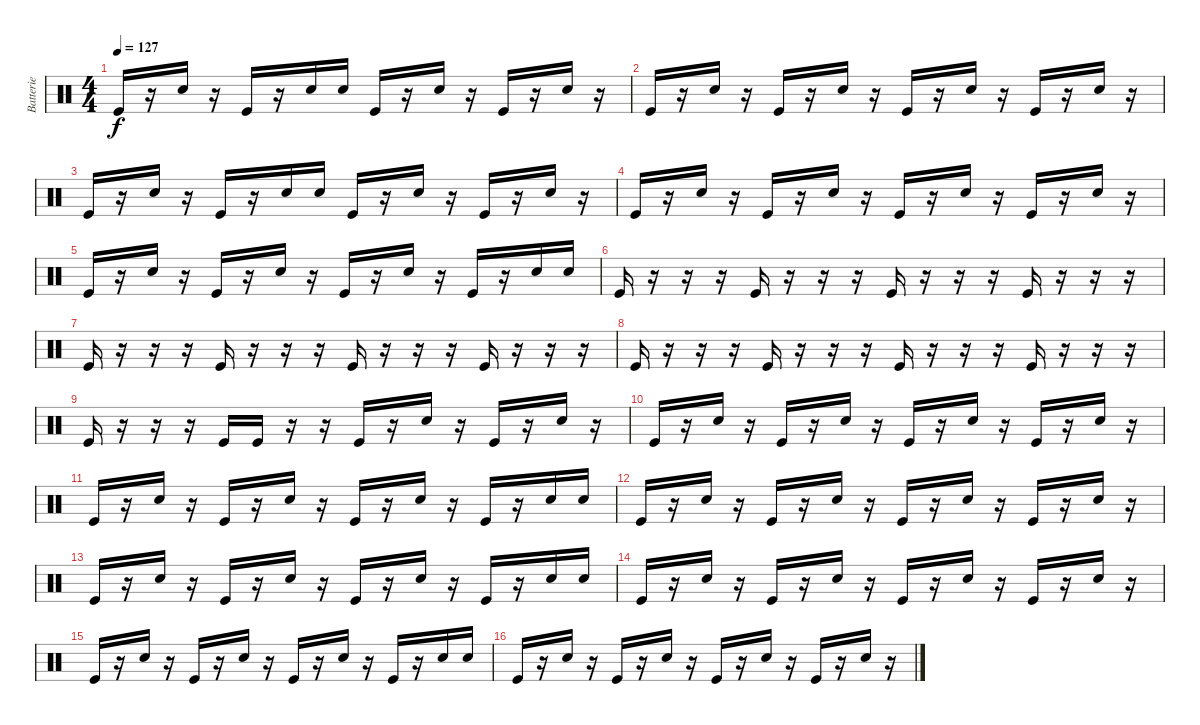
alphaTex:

\track ("Batterie" "Batterie") {instrument percussion}
\staff {score}
\articulation defaults
\ts (4 4)
\tempo 127
\clef neutral
\ks c "Kick (hit)".16{dy f}
r.16 "Snare (hit) 2".16 r.16 "Kick (hit)".16 r.16 "Snare (hit) 2".16 "Snare (hit) 2".16 "Kick (hit)".16 r.16 "Snare (hit) 2".16 r.16 "Kick (hit)".16 r.16 "Snare (hit) 2".16 r.16 |
"Kick (hit)".16 r.16 "Snare (hit) 2".16 r.16 "Kick (hit)".16 r.16 "Snare (hit) 2".16 r.16 "Kick (hit)".16 r.16 "Snare (hit) 2".16 r.16 "Kick (hit)".16 r.16 "Snare (hit) 2".16 r.16 |
"Kick (hit)".16 r.16 "Snare (hit) 2".16 r.16 "Kick (hit)".16 r.16 "Snare (hit) 2".16 "Snare (hit) 2".16 "Kick (hit)".16 r.16 "Snare (hit) 2".16 r.16 "Kick (hit)".16 r.16 "Snare (hit) 2".16 r.16 |
"Kick (hit)".16 r.16 "Snare (hit) 2".16 r.16 "Kick (hit)".16 r.16 "Snare (hit) 2".16 r.16 "Kick (hit)".16 r.16 "Snare (hit) 2".16 r.16 "Kick (hit)".16 r.16 "Snare (hit) 2".16 r.16 |
"Kick (hit)".16 r.16 "Snare (hit) 2".16 r.16 "Kick (hit)".16 r.16 "Snare (hit) 2".16 r.16 "Kick (hit)".16 r.16 "Snare (hit) 2".16 r.16 "Kick (hit)".16 r.16 "Snare (hit) 2".16 "Snare (hit) 2".16 |
"Kick (hit)".16 r.16 r.16 r.16 "Kick (hit)".16 r.16 r.16 r.16 "Kick (hit)".16 r.16 r.16 r.16 "Kick (hit)".16 r.16 r.16 r.16 |
"Kick (hit)".16 r.16 r.16 r.16 "Kick (hit)".16 r.16 r.16 r.16 "Kick (hit)".16 r.16 r.16 r.16 "Kick (hit)".16 r.16 r.16 r.16 |
"Kick (hit)".16 r.16 r.16 r.16 "Kick (hit)".16 r.16 r.16 r.16 "Kick (hit)".16 r.16 r.16 r.16 "Kick (hit)".16 r.16 r.16 r.16 |
"Kick (hit)".16 r.16 r.16 r.16 "Kick (hit)".16 "Kick (hit)".16 r.16 r.16 "Kick (hit)".16 r.16 "Snare (hit) 2".16 r.16 "Kick (hit)".16 r.16 "Snare (hit) 2".16 r.16 |
"Kick (hit)".16 r.16 "Snare (hit) 2".16 r.16 "Kick (hit)".16 r.16 "Snare (hit) 2".16 r.16 "Kick (hit)".16 r.16 "Snare (hit) 2".16 r.16 "Kick (hit)".16 r.16 "Snare (hit) 2".16 r.16 |
"Kick (hit)".16 r.16 "Snare (hit) 2".16 r.16 "Kick (hit)".16 r.16 "Snare (hit) 2".16 r.16 "Kick (hit)".16 r.16 "Snare (hit) 2".16 r.16 "Kick (hit)".16 r.16 "Snare (hit) 2".16 "Snare (hit) 2".16 |
"Kick (hit)".16 r.16 "Snare (hit) 2".16 r.16 "Kick (hit)".16 r.16 "Snare (hit) 2".16 r.16 "Kick (hit)".16 r.16 "Snare (hit) 2".16 r.16 "Kick (hit)".16 r.16 "Snare (hit) 2".16 r.16 |
"Kick (hit)".16 r.16 "Snare (hit) 2".16 r.16 "Kick (hit)".16 r.16 "Snare (hit) 2".16 r.16 "Kick (hit)".16 r.16 "Snare (hit) 2".16 r.16 "Kick (hit)".16 r.16 "Snare (hit) 2".16 "Snare (hit) 2".16 |
"Kick (hit)".16 r.16 "Snare (hit) 2".16 r.16 "Kick (hit)".16 r.16 "Snare (hit) 2".16 r.16 "Kick (hit)".16 r.16 "Snare (hit) 2".16 r.16 "Kick (hit)".16 r.16 "Snare (hit) 2".16 r.16 |
"Kick (hit)".16 r.16 "Snare (hit) 2".16 r.16 "Kick (hit)".16 r.16 "Snare (hit) 2".16 r.16 "Kick (hit)".16 r.16 "Snare (hit) 2".16 r.16 "Kick (hit)".16 r.16 "Snare (hit) 2".16 "Snare (hit) 2".16 |
"Kick (hit)".16 r.16 "Snare (hit) 2".16 r.16 "Kick (hit)".16 r.16 "Snare (hit) 2".16 r.16 "Kick (hit)".16 r.16 "Snare (hit) 2".16 r.16 "Kick (hit)".16 r.16 "Snare (hit) 2".16 r.16
